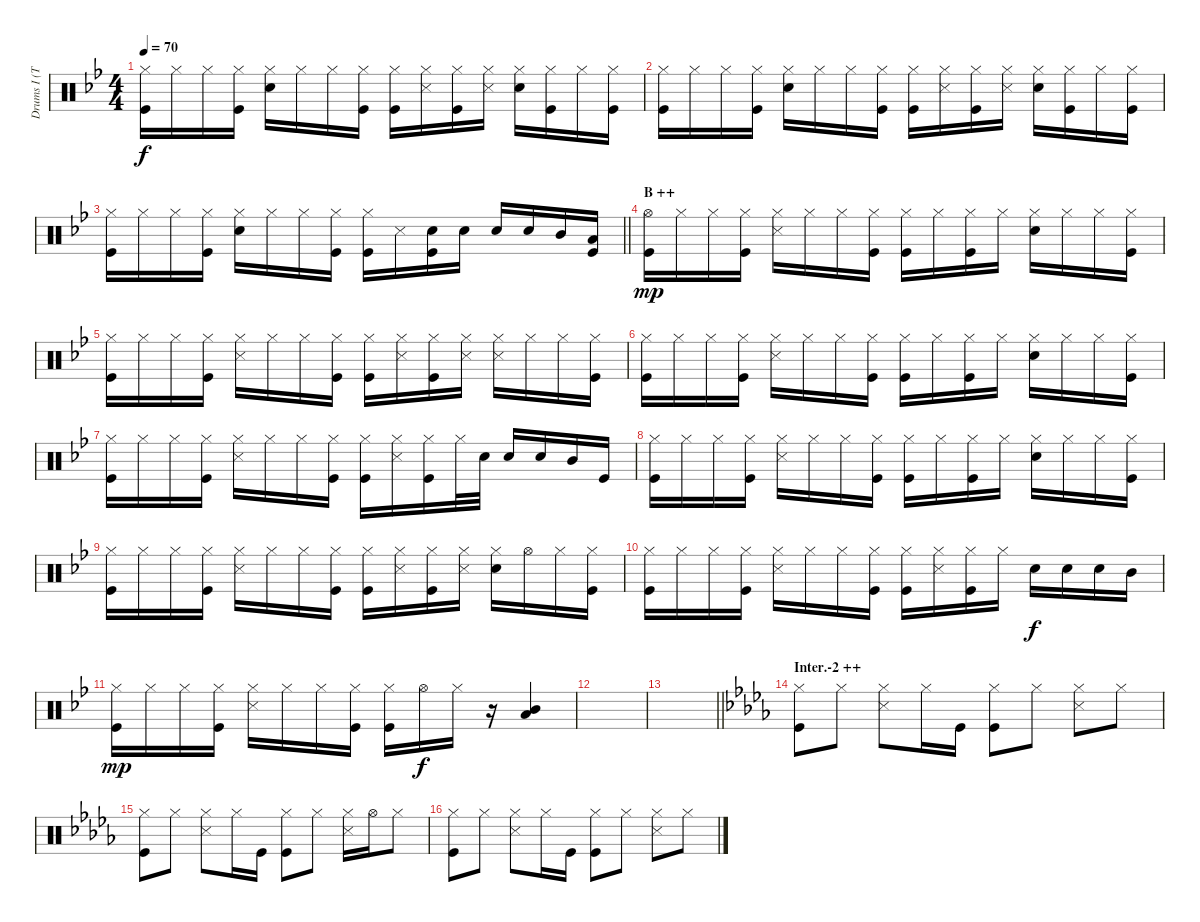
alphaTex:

\track ("Drums I (Tainaka Ritsu)" "Drums I (T") {instrument percussion}
\staff {score}
\articulation defaults
\ts (4 4)
\tempo 70
\clef neutral
\ks bb
("Hi-Hat (closed)" "Kick (hit)").16{dy f} "Hi-Hat (closed)".16 "Hi-Hat (closed)".16 ("Hi-Hat (closed)" "Kick (hit)").16 ("Hi-Hat (closed)" "Snare (hit) 2").16 "Hi-Hat (closed)".16 "Hi-Hat (closed)".16 ("Hi-Hat (closed)" "Kick (hit)").16 ("Hi-Hat (closed)" "Kick (hit)").16 ("Hi-Hat (closed)" "Snare (side stick) 3").16 ("Hi-Hat (closed)" "Kick (hit)").16 ("Hi-Hat (closed)" "Snare (side stick) 3").16 ("Hi-Hat (closed)" "Snare (hit) 2").16 ("Hi-Hat (closed)" "Kick (hit)").16 "Hi-Hat (closed)".16 ("Hi-Hat (closed)" "Kick (hit)").16 |
("Hi-Hat (closed)" "Kick (hit)").16 "Hi-Hat (closed)".16 "Hi-Hat (closed)".16 ("Hi-Hat (closed)" "Kick (hit)").16 ("Hi-Hat (closed)" "Snare (hit) 2").16 "Hi-Hat (closed)".16 "Hi-Hat (closed)".16 ("Hi-Hat (closed)" "Kick (hit)").16 ("Hi-Hat (closed)" "Kick (hit)").16 ("Hi-Hat (closed)" "Snare (side stick) 3").16 ("Hi-Hat (closed)" "Kick (hit)").16 ("Hi-Hat (closed)" "Snare (side stick) 3").16 ("Hi-Hat (closed)" "Snare (hit) 2").16 ("Hi-Hat (closed)" "Kick (hit)").16 "Hi-Hat (closed)".16 ("Hi-Hat (closed)" "Kick (hit)").16 |
\barLineRight lightlight
("Hi-Hat (closed)" "Kick (hit)").16 "Hi-Hat (closed)".16 "Hi-Hat (closed)".16 ("Hi-Hat (closed)" "Kick (hit)").16 ("Hi-Hat (closed)" "Snare (hit) 2").16 "Hi-Hat (closed)".16 "Hi-Hat (closed)".16 ("Hi-Hat (closed)" "Kick (hit)").16 ("Hi-Hat (closed)" "Kick (hit)").16 "Snare (side stick) 3".16 ("Snare (hit) 2" "Kick (hit)").16 "Snare (hit) 2".16 "Snare (hit) 2".16 "Snare (hit) 2".16 "Mid Tom (hit)".16 ("Low Tom (hit)" "Kick (hit)").16 |
\section ("" "B ++")
("Hi-Hat (open)" "Kick (hit)").16{dy mp} "Hi-Hat (closed)".16 "Hi-Hat (closed)".16 ("Hi-Hat (closed)" "Kick (hit)").16 ("Hi-Hat (closed)" "Snare (side stick) 3").16 "Hi-Hat (closed)".16 "Hi-Hat (closed)".16 ("Hi-Hat (closed)" "Kick (hit)").16 ("Hi-Hat (closed)" "Kick (hit)").16 "Hi-Hat (closed)".16 ("Hi-Hat (closed)" "Kick (hit)").16 "Hi-Hat (closed)".16 ("Hi-Hat (closed)" "Snare (hit) 2").16 "Hi-Hat (closed)".16 "Hi-Hat (closed)".16 ("Hi-Hat (closed)" "Kick (hit)").16 |
("Hi-Hat (closed)" "Kick (hit)").16 "Hi-Hat (closed)".16 "Hi-Hat (closed)".16 ("Hi-Hat (closed)" "Kick (hit)").16 ("Hi-Hat (closed)" "Snare (side stick) 3").16 "Hi-Hat (closed)".16 "Hi-Hat (closed)".16 ("Hi-Hat (closed)" "Kick (hit)").16 ("Hi-Hat (closed)" "Kick (hit)").16 ("Hi-Hat (closed)" "Snare (side stick) 3").16 ("Hi-Hat (closed)" "Kick (hit)").16 ("Hi-Hat (closed)" "Snare (side stick) 3").16 ("Hi-Hat (closed)" "Snare (side stick) 3").16 "Hi-Hat (closed)".16 "Hi-Hat (closed)".16 ("Hi-Hat (closed)" "Kick (hit)").16 |
("Hi-Hat (closed)" "Kick (hit)").16 "Hi-Hat (closed)".16 "Hi-Hat (closed)".16 ("Hi-Hat (closed)" "Kick (hit)").16 ("Hi-Hat (closed)" "Snare (side stick) 3").16 "Hi-Hat (closed)".16 "Hi-Hat (closed)".16 ("Hi-Hat (closed)" "Kick (hit)").16 ("Hi-Hat (closed)" "Kick (hit)").16 "Hi-Hat (closed)".16 ("Hi-Hat (closed)" "Kick (hit)").16 "Hi-Hat (closed)".16 ("Hi-Hat (closed)" "Snare (hit) 2").16 "Hi-Hat (closed)".16 "Hi-Hat (closed)".16 ("Hi-Hat (closed)" "Kick (hit)").16 |
("Hi-Hat (closed)" "Kick (hit)").16 "Hi-Hat (closed)".16 "Hi-Hat (closed)".16 ("Hi-Hat (closed)" "Kick (hit)").16 ("Hi-Hat (closed)" "Snare (side stick) 3").16 "Hi-Hat (closed)".16 "Hi-Hat (closed)".16 ("Hi-Hat (closed)" "Kick (hit)").16 ("Hi-Hat (closed)" "Kick (hit)").16 ("Hi-Hat (closed)" "Snare (side stick) 3").16 ("Hi-Hat (closed)" "Kick (hit)").16 "Hi-Hat (closed)".32 "Snare (hit) 2".32 "Snare (hit) 2".16 "Snare (hit) 2".16 "Mid Tom (hit)".16 "Kick (hit)".16 |
("Hi-Hat (closed)" "Kick (hit)").16 "Hi-Hat (closed)".16 "Hi-Hat (closed)".16 ("Hi-Hat (closed)" "Kick (hit)").16 ("Hi-Hat (closed)" "Snare (side stick) 3").16 "Hi-Hat (closed)".16 "Hi-Hat (closed)".16 ("Hi-Hat (closed)" "Kick (hit)").16 ("Hi-Hat (closed)" "Kick (hit)").16 "Hi-Hat (closed)".16 ("Hi-Hat (closed)" "Kick (hit)").16 "Hi-Hat (closed)".16 ("Hi-Hat (closed)" "Snare (hit) 2").16 "Hi-Hat (closed)".16 "Hi-Hat (closed)".16 ("Hi-Hat (closed)" "Kick (hit)").16 |
("Hi-Hat (closed)" "Kick (hit)").16 "Hi-Hat (closed)".16 "Hi-Hat (closed)".16 ("Hi-Hat (closed)" "Kick (hit)").16 ("Hi-Hat (closed)" "Snare (side stick) 3").16 "Hi-Hat (closed)".16 "Hi-Hat (closed)".16 ("Hi-Hat (closed)" "Kick (hit)").16 ("Hi-Hat (closed)" "Kick (hit)").16 ("Hi-Hat (closed)" "Snare (side stick) 3").16 ("Hi-Hat (closed)" "Kick (hit)").16 ("Hi-Hat (closed)" "Snare (side stick) 3").16 ("Hi-Hat (closed)" "Snare (hit) 2").16 "Hi-Hat (open)".16 "Hi-Hat (closed)".16 ("Hi-Hat (closed)" "Kick (hit)").16 |
("Hi-Hat (closed)" "Kick (hit)").16 "Hi-Hat (closed)".16 "Hi-Hat (closed)".16 ("Hi-Hat (closed)" "Kick (hit)").16 ("Hi-Hat (closed)" "Snare (side stick) 3").16 "Hi-Hat (closed)".16 "Hi-Hat (closed)".16 ("Hi-Hat (closed)" "Kick (hit)").16 ("Hi-Hat (closed)" "Kick (hit)").16 ("Hi-Hat (closed)" "Snare (side stick) 3").16 ("Hi-Hat (closed)" "Kick (hit)").16 "Hi-Hat (closed)".16 "Snare (hit) 2".16{dy f} "Snare (hit) 2".16 "Snare (hit) 2".16 "Mid Tom (hit)".16 |
("Hi-Hat (closed)" "Kick (hit)").16{dy mp} "Hi-Hat (closed)".16 "Hi-Hat (closed)".16 ("Hi-Hat (closed)" "Kick (hit)").16 ("Hi-Hat (closed)" "Snare (side stick) 3").16 "Hi-Hat (closed)".16 "Hi-Hat (closed)".16 ("Hi-Hat (closed)" "Kick (hit)").16 ("Hi-Hat (closed)" "Kick (hit)").16 "Hi-Hat (open)".16{dy f} "Hi-Hat (closed)".16 r.16 ("Mid Tom (hit)" "Low Floor Tom (hit)").4 |
|
\barLineRight lightlight
|
\section ("" "Inter.-2 ++")
\ks db
("Hi-Hat (closed)" "Kick (hit)").8 "Hi-Hat (closed)".8 ("Hi-Hat (closed)" "Snare (side stick) 3").8 "Hi-Hat (closed)".16 "Kick (hit)".16 ("Hi-Hat (closed)" "Kick (hit)").8 "Hi-Hat (closed)".8 ("Hi-Hat (closed)" "Snare (side stick) 3").8 "Hi-Hat (closed)".8 |
("Hi-Hat (closed)" "Kick (hit)").8 "Hi-Hat (closed)".8 ("Hi-Hat (closed)" "Snare (side stick) 3").8 "Hi-Hat (closed)".16 "Kick (hit)".16 ("Hi-Hat (closed)" "Kick (hit)").8 "Hi-Hat (closed)".8 ("Hi-Hat (closed)" "Snare (side stick) 3").16 "Hi-Hat (open)".16 "Hi-Hat (closed)".8 |
("Hi-Hat (closed)" "Kick (hit)").8 "Hi-Hat (closed)".8 ("Hi-Hat (closed)" "Snare (side stick) 3").8 "Hi-Hat (closed)".16 "Kick (hit)".16 ("Hi-Hat (closed)" "Kick (hit)").8 "Hi-Hat (closed)".8 ("Hi-Hat (closed)" "Snare (side stick) 3").8 "Hi-Hat (closed)".8
